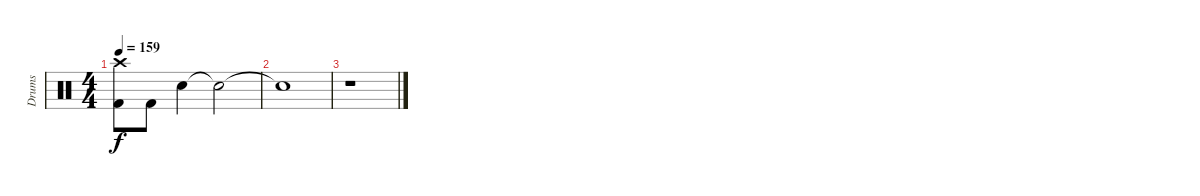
\track ("Drums" "Drums") {instrument percussion}
\staff {score}
\articulation defaults
\ts (4 4)
\tempo 159
\clef neutral
\ks c
("Crash high (hit)" "Kick (hit) 2").8{dy f} "Kick (hit) 2".8 "Electric Snare (hit)".4 "Snare (hit)"{t}.2 |
"Snare (hit)"{t}.1 |
r.1
